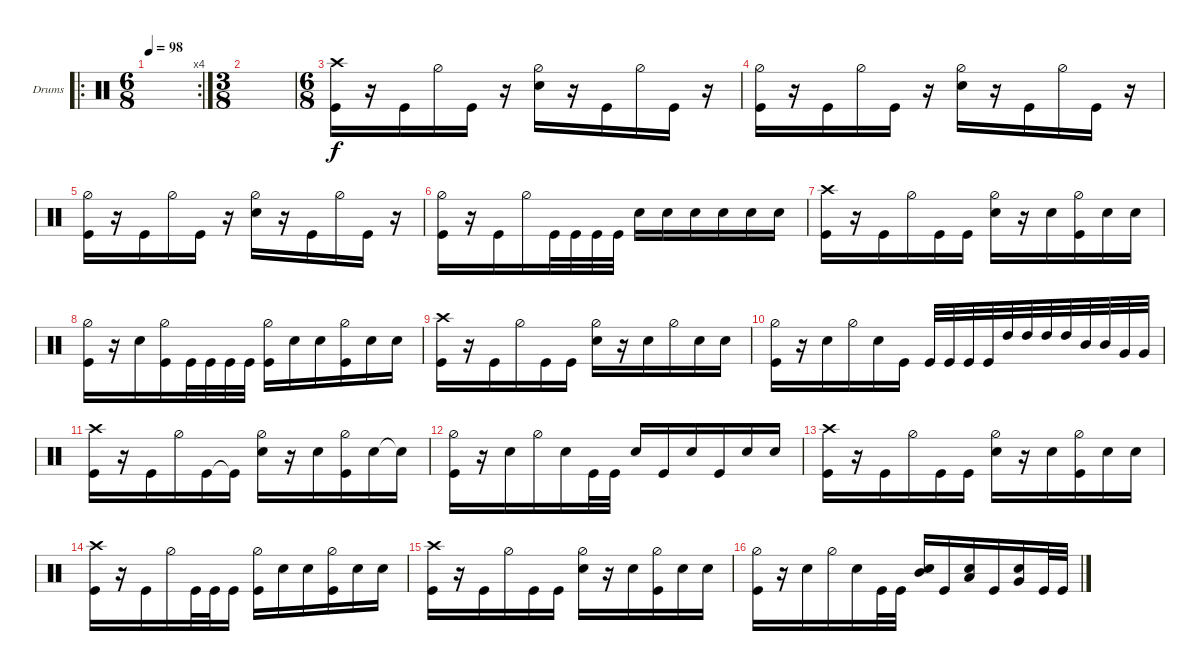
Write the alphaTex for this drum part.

\defaultSystemsLayout 4
\bracketExtendMode groupsimilarinstruments
\firstSystemTrackNameOrientation horizontal
\otherSystemsTrackNameOrientation horizontal
\track ("Drumkit" "Drums") {instrument percussion}
\staff {score}
\articulation defaults
\ro
\rc 4
\ts (6 8)
\tempo 98
\clef neutral
\ks c
|
\ts (3 8)
|
\ts (6 8)
("Crash high (hit)" "Kick (hit)").16 r.16 "Kick (hit)".16 "Hi-Hat (half)".16 "Kick (hit)".16 r.16 ("Snare (hit) 2" "Hi-Hat (half)").16 r.16 "Kick (hit)".16 "Hi-Hat (half)".16 "Kick (hit)".16 r.16 |
("Kick (hit)" "Hi-Hat (half)").16 r.16 "Kick (hit)".16 "Hi-Hat (half)".16 "Kick (hit)".16 r.16 ("Snare (hit) 2" "Hi-Hat (half)").16 r.16 "Kick (hit)".16 "Hi-Hat (half)".16 "Kick (hit)".16 r.16 |
("Kick (hit)" "Hi-Hat (half)").16 r.16 "Kick (hit)".16 "Hi-Hat (half)".16 "Kick (hit)".16 r.16 ("Snare (hit) 2" "Hi-Hat (half)").16 r.16 "Kick (hit)".16 "Hi-Hat (half)".16 "Kick (hit)".16 r.16 |
("Kick (hit)" "Hi-Hat (half)").16 r.16 "Kick (hit)".16 "Hi-Hat (half)".16 "Kick (hit)".32 "Kick (hit)".32 "Kick (hit)".32 "Kick (hit)".32 "Snare (hit) 2".16 "Snare (hit) 2".16 "Snare (hit) 2".16 "Snare (hit) 2".16 "Snare (hit) 2".16 "Snare (hit) 2".16 |
("Kick (hit)" "Crash high (hit)").16 r.16 "Kick (hit)".16 "Hi-Hat (half)".16 "Kick (hit)".16 "Kick (hit)".16 ("Snare (hit) 2" "Hi-Hat (half)").16 r.16 "Snare (hit) 2".16 ("Hi-Hat (half)" "Kick (hit)").16 "Snare (hit) 2".16 "Snare (hit) 2".16 |
("Kick (hit)" "Hi-Hat (half)").16 r.16 "Snare (hit) 2".16 ("Hi-Hat (half)" "Kick (hit)").16 "Kick (hit)".32 "Kick (hit)".32 "Kick (hit)".32 "Kick (hit)".32 ("Kick (hit)" "Hi-Hat (half)").16 "Snare (hit) 2".16 "Snare (hit) 2".16 ("Kick (hit)" "Hi-Hat (half)").16 "Snare (hit) 2".16 "Snare (hit) 2".16 |
("Kick (hit)" "Crash high (hit)").16 r.16 "Kick (hit)".16 "Hi-Hat (half)".16 "Kick (hit)".16 "Kick (hit)".16 ("Snare (hit) 2" "Hi-Hat (half)").16 r.16 "Snare (hit) 2".16 "Hi-Hat (half)".16 "Snare (hit) 2".16 "Snare (hit) 2".16 |
("Kick (hit)" "Hi-Hat (half)").16 r.16 "Snare (hit) 2".16 "Hi-Hat (half)".16 "Snare (hit) 2".16 "Kick (hit)".16 "Kick (hit)".32 "Kick (hit)".32 "Kick (hit)".32 "Kick (hit)".32 "High Tom (hit)".32 "High Tom (hit)".32 "High Tom (hit)".32 "High Tom (hit)".32 "Mid Tom (hit)".32 "Mid Tom (hit)".32 "Very Low Tom (hit)".32 "Very Low Tom (hit)".32 |
("Kick (hit)" "Crash high (hit)").16 r.16 "Kick (hit)".16 "Hi-Hat (half)".16 "Kick (hit)".16 "Kick (hit)"{t}.16 ("Snare (hit) 2" "Hi-Hat (half)").16 r.16 "Snare (hit) 2".16 ("Hi-Hat (half)" "Kick (hit)").16 "Snare (hit) 2".16 "Snare (hit) 2"{t}.16 |
("Kick (hit)" "Hi-Hat (half)").16 r.16 "Snare (hit) 2".16 "Hi-Hat (half)".16 "Snare (hit) 2".16 "Kick (hit)".32 "Kick (hit)".32 "Snare (hit) 2".16 "Kick (hit)".16 "Snare (hit) 2".16 "Kick (hit)".16 "Snare (hit) 2".16 "Snare (hit) 2".16 |
("Kick (hit)" "Crash high (hit)").16 r.16 "Kick (hit)".16 "Hi-Hat (half)".16 "Kick (hit)".16 "Kick (hit)".16 ("Snare (hit) 2" "Hi-Hat (half)").16 r.16 "Snare (hit) 2".16 ("Hi-Hat (half)" "Kick (hit)").16 "Snare (hit) 2".16 "Snare (hit) 2".16 |
("Kick (hit)" "Crash high (hit)").16 r.16 "Kick (hit)".16 "Hi-Hat (half)".16 "Kick (hit)".32 "Kick (hit)".32 "Kick (hit)".16 ("Kick (hit)" "Hi-Hat (half)").16 "Snare (hit) 2".16 "Snare (hit) 2".16 ("Hi-Hat (half)" "Kick (hit)").16 "Snare (hit) 2".16 "Snare (hit) 2".16 |
("Kick (hit)" "Crash high (hit)").16 r.16 "Kick (hit)".16 "Hi-Hat (half)".16 "Kick (hit)".16 "Kick (hit)".16 ("Snare (hit) 2" "Hi-Hat (half)").16 r.16 "Snare (hit) 2".16 ("Hi-Hat (half)" "Kick (hit)").16 "Snare (hit) 2".16 "Snare (hit) 2".16 |
("Kick (hit)" "Hi-Hat (half)").16 r.16 "Snare (hit) 2".16 "Hi-Hat (half)".16 "Snare (hit) 2".16 "Kick (hit)".32 "Kick (hit)".32 ("Snare (hit) 2" "Mid Tom (hit)").16 "Kick (hit)".16 ("Snare (hit) 2" "Low Tom (hit)").16 "Kick (hit)".16 ("Snare (hit) 2" "Very Low Tom (hit)").16 "Kick (hit)".32 "Kick (hit)".32
